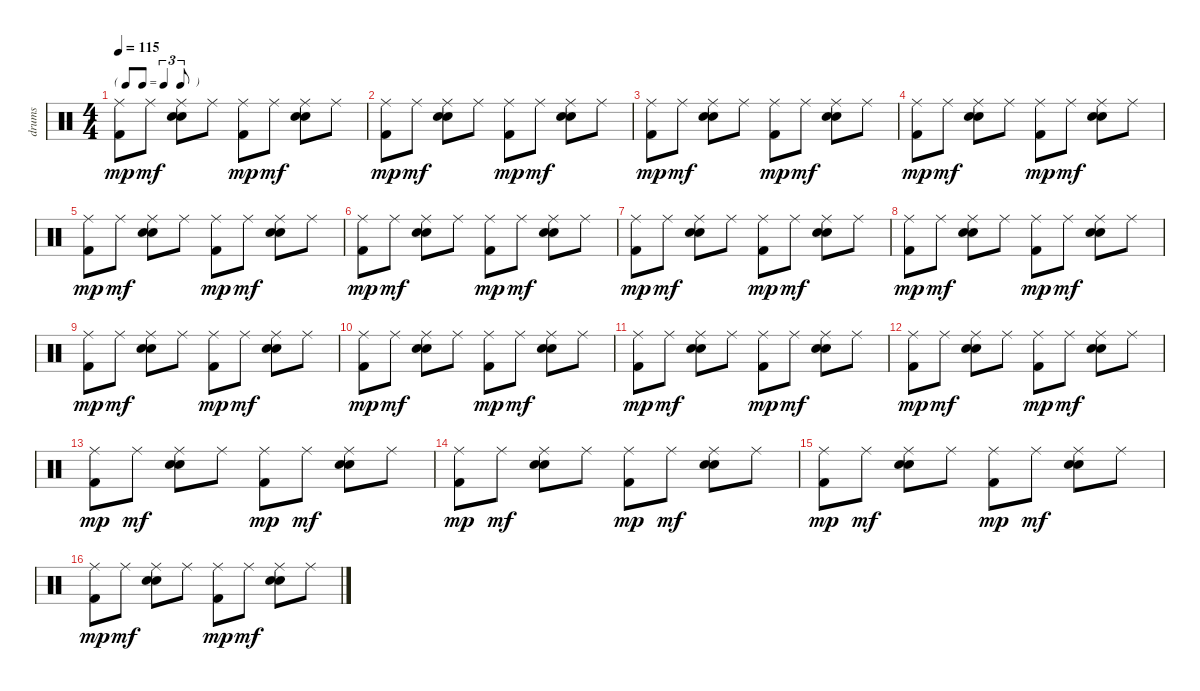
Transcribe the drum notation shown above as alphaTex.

\track ("drums" "drums") {instrument percussion}
\staff {score}
\articulation defaults
\ts (4 4)
\tf triplet8th
\tempo 115
\clef neutral
\ks c
("Ride (middle)" "Kick (hit) 2").8{dy mp} "Ride (middle)".8{dy mf} ("Ride (middle)" "Snare (hit) 2" "Hand Clap (hit)").8 "Ride (middle)".8 ("Ride (middle)" "Kick (hit) 2").8{dy mp} "Ride (middle)".8{dy mf} ("Ride (middle)" "Snare (hit) 2" "Hand Clap (hit)").8 "Ride (middle)".8 |
("Ride (middle)" "Kick (hit) 2").8{dy mp} "Ride (middle)".8{dy mf} ("Ride (middle)" "Snare (hit) 2" "Hand Clap (hit)").8 "Ride (middle)".8 ("Ride (middle)" "Kick (hit) 2").8{dy mp} "Ride (middle)".8{dy mf} ("Ride (middle)" "Snare (hit) 2" "Hand Clap (hit)").8 "Ride (middle)".8 |
("Ride (middle)" "Kick (hit) 2").8{dy mp} "Ride (middle)".8{dy mf} ("Ride (middle)" "Snare (hit) 2" "Hand Clap (hit)").8 "Ride (middle)".8 ("Ride (middle)" "Kick (hit) 2").8{dy mp} "Ride (middle)".8{dy mf} ("Ride (middle)" "Snare (hit) 2" "Hand Clap (hit)").8 "Ride (middle)".8 |
("Ride (middle)" "Kick (hit) 2").8{dy mp} "Ride (middle)".8{dy mf} ("Ride (middle)" "Snare (hit) 2" "Hand Clap (hit)").8 "Ride (middle)".8 ("Ride (middle)" "Kick (hit) 2").8{dy mp} "Ride (middle)".8{dy mf} ("Ride (middle)" "Snare (hit) 2" "Hand Clap (hit)").8 "Ride (middle)".8 |
("Ride (middle)" "Kick (hit) 2").8{dy mp} "Ride (middle)".8{dy mf} ("Ride (middle)" "Snare (hit) 2" "Hand Clap (hit)").8 "Ride (middle)".8 ("Ride (middle)" "Kick (hit) 2").8{dy mp} "Ride (middle)".8{dy mf} ("Ride (middle)" "Snare (hit) 2" "Hand Clap (hit)").8 "Ride (middle)".8 |
("Ride (middle)" "Kick (hit) 2").8{dy mp} "Ride (middle)".8{dy mf} ("Ride (middle)" "Snare (hit) 2" "Hand Clap (hit)").8 "Ride (middle)".8 ("Ride (middle)" "Kick (hit) 2").8{dy mp} "Ride (middle)".8{dy mf} ("Ride (middle)" "Snare (hit) 2" "Hand Clap (hit)").8 "Ride (middle)".8 |
("Ride (middle)" "Kick (hit) 2").8{dy mp} "Ride (middle)".8{dy mf} ("Ride (middle)" "Snare (hit) 2" "Hand Clap (hit)").8 "Ride (middle)".8 ("Ride (middle)" "Kick (hit) 2").8{dy mp} "Ride (middle)".8{dy mf} ("Ride (middle)" "Snare (hit) 2" "Hand Clap (hit)").8 "Ride (middle)".8 |
("Ride (middle)" "Kick (hit) 2").8{dy mp} "Ride (middle)".8{dy mf} ("Ride (middle)" "Snare (hit) 2" "Hand Clap (hit)").8 "Ride (middle)".8 ("Ride (middle)" "Kick (hit) 2").8{dy mp} "Ride (middle)".8{dy mf} ("Ride (middle)" "Snare (hit) 2" "Hand Clap (hit)").8 "Ride (middle)".8 |
("Ride (middle)" "Kick (hit) 2").8{dy mp} "Ride (middle)".8{dy mf} ("Ride (middle)" "Snare (hit) 2" "Hand Clap (hit)").8 "Ride (middle)".8 ("Ride (middle)" "Kick (hit) 2").8{dy mp} "Ride (middle)".8{dy mf} ("Ride (middle)" "Snare (hit) 2" "Hand Clap (hit)").8 "Ride (middle)".8 |
("Ride (middle)" "Kick (hit) 2").8{dy mp} "Ride (middle)".8{dy mf} ("Ride (middle)" "Snare (hit) 2" "Hand Clap (hit)").8 "Ride (middle)".8 ("Ride (middle)" "Kick (hit) 2").8{dy mp} "Ride (middle)".8{dy mf} ("Ride (middle)" "Snare (hit) 2" "Hand Clap (hit)").8 "Ride (middle)".8 |
("Ride (middle)" "Kick (hit) 2").8{dy mp} "Ride (middle)".8{dy mf} ("Ride (middle)" "Snare (hit) 2" "Hand Clap (hit)").8 "Ride (middle)".8 ("Ride (middle)" "Kick (hit) 2").8{dy mp} "Ride (middle)".8{dy mf} ("Ride (middle)" "Snare (hit) 2" "Hand Clap (hit)").8 "Ride (middle)".8 |
("Ride (middle)" "Kick (hit) 2").8{dy mp} "Ride (middle)".8{dy mf} ("Ride (middle)" "Snare (hit) 2" "Hand Clap (hit)").8 "Ride (middle)".8 ("Ride (middle)" "Kick (hit) 2").8{dy mp} "Ride (middle)".8{dy mf} ("Ride (middle)" "Snare (hit) 2" "Hand Clap (hit)").8 "Ride (middle)".8 |
("Ride (middle)" "Kick (hit) 2").8{dy mp} "Ride (middle)".8{dy mf} ("Ride (middle)" "Snare (hit) 2" "Hand Clap (hit)").8 "Ride (middle)".8 ("Ride (middle)" "Kick (hit) 2").8{dy mp} "Ride (middle)".8{dy mf} ("Ride (middle)" "Snare (hit) 2" "Hand Clap (hit)").8 "Ride (middle)".8 |
("Ride (middle)" "Kick (hit) 2").8{dy mp} "Ride (middle)".8{dy mf} ("Ride (middle)" "Snare (hit) 2" "Hand Clap (hit)").8 "Ride (middle)".8 ("Ride (middle)" "Kick (hit) 2").8{dy mp} "Ride (middle)".8{dy mf} ("Ride (middle)" "Snare (hit) 2" "Hand Clap (hit)").8 "Ride (middle)".8 |
("Ride (middle)" "Kick (hit) 2").8{dy mp} "Ride (middle)".8{dy mf} ("Ride (middle)" "Snare (hit) 2" "Hand Clap (hit)").8 "Ride (middle)".8 ("Ride (middle)" "Kick (hit) 2").8{dy mp} "Ride (middle)".8{dy mf} ("Ride (middle)" "Snare (hit) 2" "Hand Clap (hit)").8 "Ride (middle)".8 |
("Ride (middle)" "Kick (hit) 2").8{dy mp} "Ride (middle)".8{dy mf} ("Ride (middle)" "Snare (hit) 2" "Hand Clap (hit)").8 "Ride (middle)".8 ("Ride (middle)" "Kick (hit) 2").8{dy mp} "Ride (middle)".8{dy mf} ("Ride (middle)" "Snare (hit) 2" "Hand Clap (hit)").8 "Ride (middle)".8
